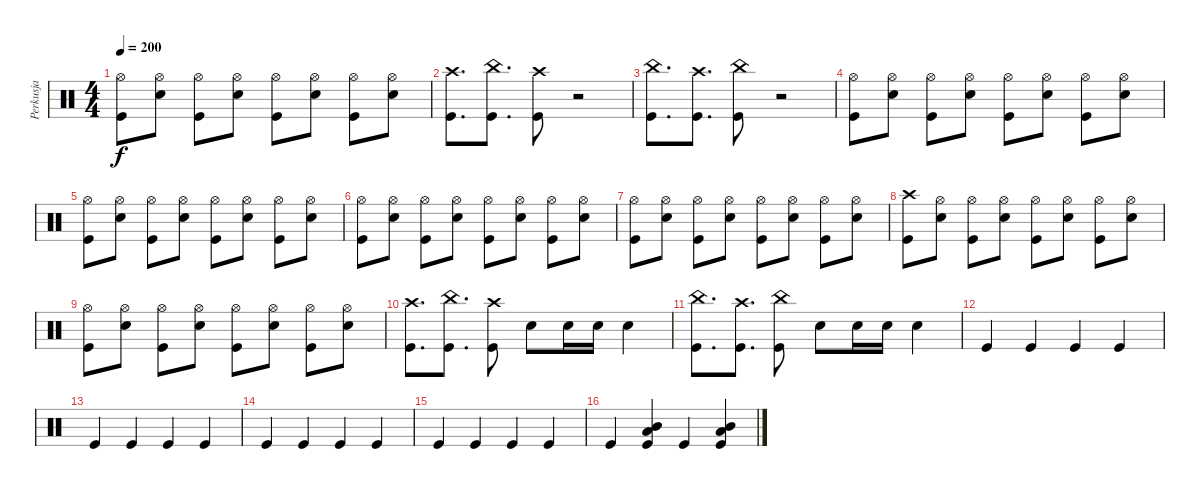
\track ("Perkusja" "Perkusja") {instrument percussion}
\staff {score}
\articulation defaults
\ts (4 4)
\tempo 200
\clef neutral
\ks c
("Hi-Hat (open)" "Kick (hit)").8{dy f} ("Hi-Hat (open)" "Electric Snare (hit)").8 ("Hi-Hat (open)" "Kick (hit)").8 ("Hi-Hat (open)" "Electric Snare (hit)").8 ("Hi-Hat (open)" "Kick (hit)").8 ("Hi-Hat (open)" "Electric Snare (hit)").8 ("Hi-Hat (open)" "Kick (hit)").8 ("Hi-Hat (open)" "Electric Snare (hit)").8 |
("Crash high (hit)" "Kick (hit)").8{d} ("China (hit)" "Kick (hit)").8{d} ("Crash high (hit)" "Kick (hit)").8 r.2 |
("China (hit)" "Kick (hit)").8{d} ("Crash high (hit)" "Kick (hit)").8{d} ("China (hit)" "Kick (hit)").8 r.2 |
("Hi-Hat (open)" "Kick (hit)").8 ("Hi-Hat (open)" "Electric Snare (hit)").8 ("Hi-Hat (open)" "Kick (hit)").8 ("Hi-Hat (open)" "Electric Snare (hit)").8 ("Hi-Hat (open)" "Kick (hit)").8 ("Hi-Hat (open)" "Electric Snare (hit)").8 ("Hi-Hat (open)" "Kick (hit)").8 ("Hi-Hat (open)" "Electric Snare (hit)").8 |
("Hi-Hat (open)" "Kick (hit)").8 ("Hi-Hat (open)" "Electric Snare (hit)").8 ("Hi-Hat (open)" "Kick (hit)").8 ("Hi-Hat (open)" "Electric Snare (hit)").8 ("Hi-Hat (open)" "Kick (hit)").8 ("Hi-Hat (open)" "Electric Snare (hit)").8 ("Hi-Hat (open)" "Kick (hit)").8 ("Hi-Hat (open)" "Electric Snare (hit)").8 |
("Hi-Hat (open)" "Kick (hit)").8 ("Hi-Hat (open)" "Electric Snare (hit)").8 ("Hi-Hat (open)" "Kick (hit)").8 ("Hi-Hat (open)" "Electric Snare (hit)").8 ("Hi-Hat (open)" "Kick (hit)").8 ("Hi-Hat (open)" "Electric Snare (hit)").8 ("Hi-Hat (open)" "Kick (hit)").8 ("Hi-Hat (open)" "Electric Snare (hit)").8 |
("Hi-Hat (open)" "Kick (hit)").8 ("Hi-Hat (open)" "Electric Snare (hit)").8 ("Hi-Hat (open)" "Kick (hit)").8 ("Hi-Hat (open)" "Electric Snare (hit)").8 ("Hi-Hat (open)" "Kick (hit)").8 ("Hi-Hat (open)" "Electric Snare (hit)").8 ("Hi-Hat (open)" "Kick (hit)").8 ("Hi-Hat (open)" "Electric Snare (hit)").8 |
("Crash high (hit)" "Kick (hit)").8 ("Hi-Hat (open)" "Electric Snare (hit)").8 ("Hi-Hat (open)" "Kick (hit)").8 ("Hi-Hat (open)" "Electric Snare (hit)").8 ("Hi-Hat (open)" "Kick (hit)").8 ("Hi-Hat (open)" "Electric Snare (hit)").8 ("Hi-Hat (open)" "Kick (hit)").8 ("Hi-Hat (open)" "Electric Snare (hit)").8 |
("Hi-Hat (open)" "Kick (hit)").8 ("Hi-Hat (open)" "Electric Snare (hit)").8 ("Hi-Hat (open)" "Kick (hit)").8 ("Hi-Hat (open)" "Electric Snare (hit)").8 ("Hi-Hat (open)" "Kick (hit)").8 ("Hi-Hat (open)" "Electric Snare (hit)").8 ("Hi-Hat (open)" "Kick (hit)").8 ("Hi-Hat (open)" "Electric Snare (hit)").8 |
("Crash high (hit)" "Kick (hit)").8{d} ("China (hit)" "Kick (hit)").8{d} ("Crash high (hit)" "Kick (hit)").8 "Electric Snare (hit)".8 "Electric Snare (hit)".16 "Electric Snare (hit)".16 "Electric Snare (hit)".4 |
("China (hit)" "Kick (hit)").8{d} ("Crash high (hit)" "Kick (hit)").8{d} ("China (hit)" "Kick (hit)").8 "Electric Snare (hit)".8 "Electric Snare (hit)".16 "Electric Snare (hit)".16 "Electric Snare (hit)".4 |
"Kick (hit)".4 "Kick (hit)".4 "Kick (hit)".4 "Kick (hit)".4 |
"Kick (hit)".4 "Kick (hit)".4 "Kick (hit)".4 "Kick (hit)".4 |
"Kick (hit)".4 "Kick (hit)".4 "Kick (hit)".4 "Kick (hit)".4 |
"Kick (hit)".4 "Kick (hit)".4 "Kick (hit)".4 "Kick (hit)".4 |
"Kick (hit)".4 ("Mid Tom (hit)" "Low Tom (hit)" "Kick (hit)").4 "Kick (hit)".4 ("Mid Tom (hit)" "Low Tom (hit)" "Kick (hit)").4
